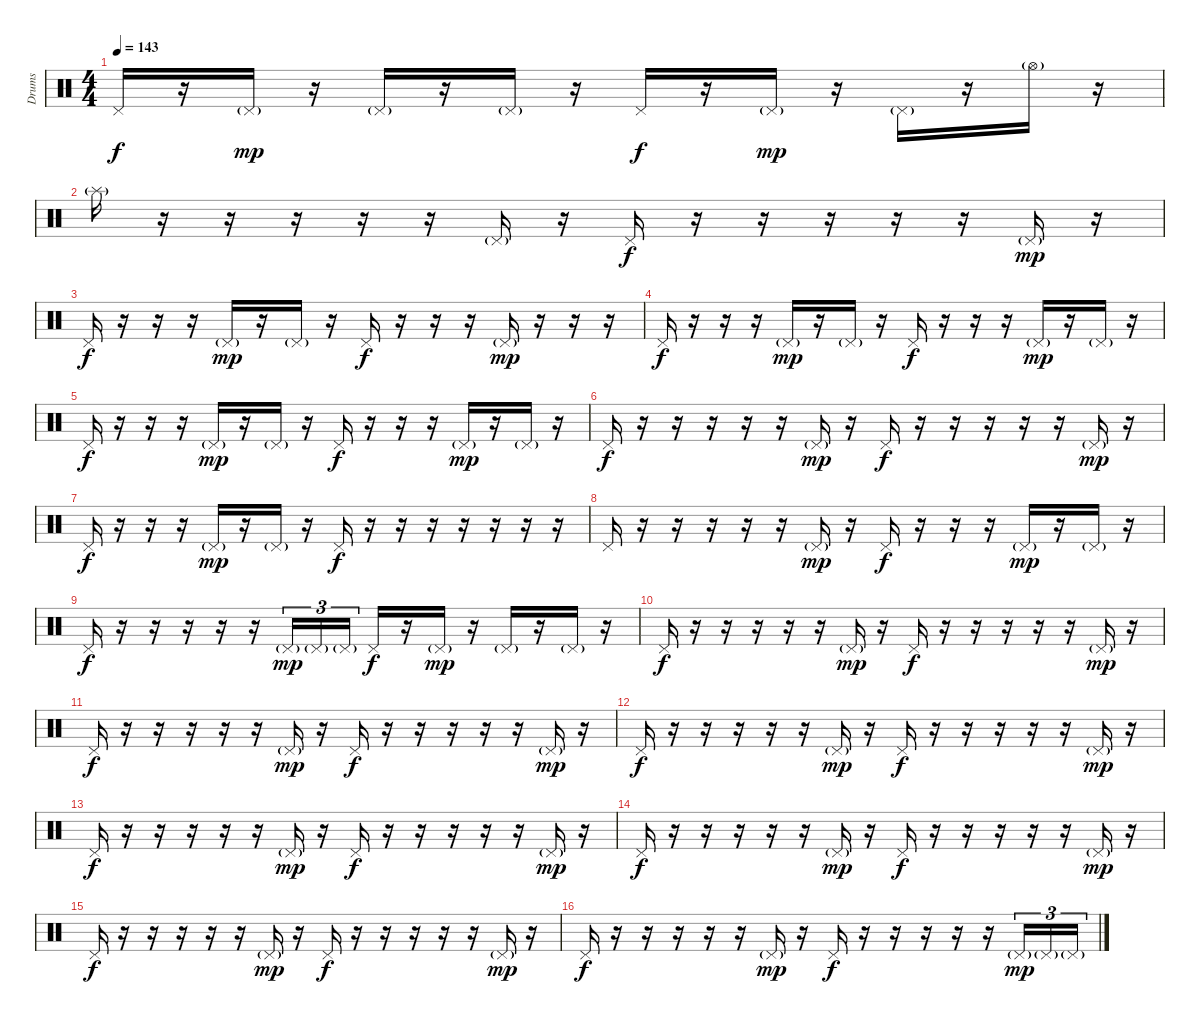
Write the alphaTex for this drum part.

\track ("Drums" "Drums") {instrument percussion}
\staff {score}
\articulation defaults
\ts (4 4)
\tempo 143
\clef neutral
\ks c "Pedal Hi-Hat (hit)".16{dy f}
r.16 "Pedal Hi-Hat (hit)"{g}.16{dy mp} r.16 "Pedal Hi-Hat (hit)"{g}.16 r.16 "Pedal Hi-Hat (hit)"{g}.16 r.16 "Pedal Hi-Hat (hit)".16{dy f} r.16 "Pedal Hi-Hat (hit)"{g}.16{dy mp} r.16 "Pedal Hi-Hat (hit)"{g}.16 r.16 "Hi-Hat (open)"{g}.16 r.16 |
"Splash (hit)"{g}.16 r.16 r.16 r.16 r.16 r.16 "Pedal Hi-Hat (hit)"{g}.16 r.16 "Pedal Hi-Hat (hit)".16{dy f} r.16 r.16 r.16 r.16 r.16 "Pedal Hi-Hat (hit)"{g}.16{dy mp} r.16 |
"Pedal Hi-Hat (hit)".16{dy f} r.16 r.16 r.16 "Pedal Hi-Hat (hit)"{g}.16{dy mp} r.16 "Pedal Hi-Hat (hit)"{g}.16 r.16 "Pedal Hi-Hat (hit)".16{dy f} r.16 r.16 r.16 "Pedal Hi-Hat (hit)"{g}.16{dy mp} r.16 r.16 r.16 |
"Pedal Hi-Hat (hit)".16{dy f} r.16 r.16 r.16 "Pedal Hi-Hat (hit)"{g}.16{dy mp} r.16 "Pedal Hi-Hat (hit)"{g}.16 r.16 "Pedal Hi-Hat (hit)".16{dy f} r.16 r.16 r.16 "Pedal Hi-Hat (hit)"{g}.16{dy mp} r.16 "Pedal Hi-Hat (hit)"{g}.16 r.16 |
"Pedal Hi-Hat (hit)".16{dy f} r.16 r.16 r.16 "Pedal Hi-Hat (hit)"{g}.16{dy mp} r.16 "Pedal Hi-Hat (hit)"{g}.16 r.16 "Pedal Hi-Hat (hit)".16{dy f} r.16 r.16 r.16 "Pedal Hi-Hat (hit)"{g}.16{dy mp} r.16 "Pedal Hi-Hat (hit)"{g}.16 r.16 |
"Pedal Hi-Hat (hit)".16{dy f} r.16 r.16 r.16 r.16 r.16 "Pedal Hi-Hat (hit)"{g}.16{dy mp} r.16 "Pedal Hi-Hat (hit)".16{dy f} r.16 r.16 r.16 r.16 r.16 "Pedal Hi-Hat (hit)"{g}.16{dy mp} r.16 |
"Pedal Hi-Hat (hit)".16{dy f} r.16 r.16 r.16 "Pedal Hi-Hat (hit)"{g}.16{dy mp} r.16 "Pedal Hi-Hat (hit)"{g}.16 r.16 "Pedal Hi-Hat (hit)".16{dy f} r.16 r.16 r.16 r.16 r.16 r.16 r.16 |
"Pedal Hi-Hat (hit)".16 r.16 r.16 r.16 r.16 r.16 "Pedal Hi-Hat (hit)"{g}.16{dy mp} r.16 "Pedal Hi-Hat (hit)".16{dy f} r.16 r.16 r.16 "Pedal Hi-Hat (hit)"{g}.16{dy mp} r.16 "Pedal Hi-Hat (hit)"{g}.16 r.16 |
"Pedal Hi-Hat (hit)".16{dy f} r.16 r.16 r.16 r.16 r.16 "Pedal Hi-Hat (hit)"{g}.16{tu (3 2) dy mp} "Pedal Hi-Hat (hit)"{g}.16{tu (3 2)} "Pedal Hi-Hat (hit)"{g}.16{tu (3 2)} "Pedal Hi-Hat (hit)".16{dy f} r.16 "Pedal Hi-Hat (hit)"{g}.16{dy mp} r.16 "Pedal Hi-Hat (hit)"{g}.16 r.16 "Pedal Hi-Hat (hit)"{g}.16 r.16 |
"Pedal Hi-Hat (hit)".16{dy f} r.16 r.16 r.16 r.16 r.16 "Pedal Hi-Hat (hit)"{g}.16{dy mp} r.16 "Pedal Hi-Hat (hit)".16{dy f} r.16 r.16 r.16 r.16 r.16 "Pedal Hi-Hat (hit)"{g}.16{dy mp} r.16 |
"Pedal Hi-Hat (hit)".16{dy f} r.16 r.16 r.16 r.16 r.16 "Pedal Hi-Hat (hit)"{g}.16{dy mp} r.16 "Pedal Hi-Hat (hit)".16{dy f} r.16 r.16 r.16 r.16 r.16 "Pedal Hi-Hat (hit)"{g}.16{dy mp} r.16 |
"Pedal Hi-Hat (hit)".16{dy f} r.16 r.16 r.16 r.16 r.16 "Pedal Hi-Hat (hit)"{g}.16{dy mp} r.16 "Pedal Hi-Hat (hit)".16{dy f} r.16 r.16 r.16 r.16 r.16 "Pedal Hi-Hat (hit)"{g}.16{dy mp} r.16 |
"Pedal Hi-Hat (hit)".16{dy f} r.16 r.16 r.16 r.16 r.16 "Pedal Hi-Hat (hit)"{g}.16{dy mp} r.16 "Pedal Hi-Hat (hit)".16{dy f} r.16 r.16 r.16 r.16 r.16 "Pedal Hi-Hat (hit)"{g}.16{dy mp} r.16 |
"Pedal Hi-Hat (hit)".16{dy f} r.16 r.16 r.16 r.16 r.16 "Pedal Hi-Hat (hit)"{g}.16{dy mp} r.16 "Pedal Hi-Hat (hit)".16{dy f} r.16 r.16 r.16 r.16 r.16 "Pedal Hi-Hat (hit)"{g}.16{dy mp} r.16 |
"Pedal Hi-Hat (hit)".16{dy f} r.16 r.16 r.16 r.16 r.16 "Pedal Hi-Hat (hit)"{g}.16{dy mp} r.16 "Pedal Hi-Hat (hit)".16{dy f} r.16 r.16 r.16 r.16 r.16 "Pedal Hi-Hat (hit)"{g}.16{dy mp} r.16 |
"Pedal Hi-Hat (hit)".16{dy f} r.16 r.16 r.16 r.16 r.16 "Pedal Hi-Hat (hit)"{g}.16{dy mp} r.16 "Pedal Hi-Hat (hit)".16{dy f} r.16 r.16 r.16 r.16 r.16 "Pedal Hi-Hat (hit)"{g}.16{tu (3 2) dy mp} "Pedal Hi-Hat (hit)"{g}.16{tu (3 2)} "Pedal Hi-Hat (hit)"{g}.16{tu (3 2)}
